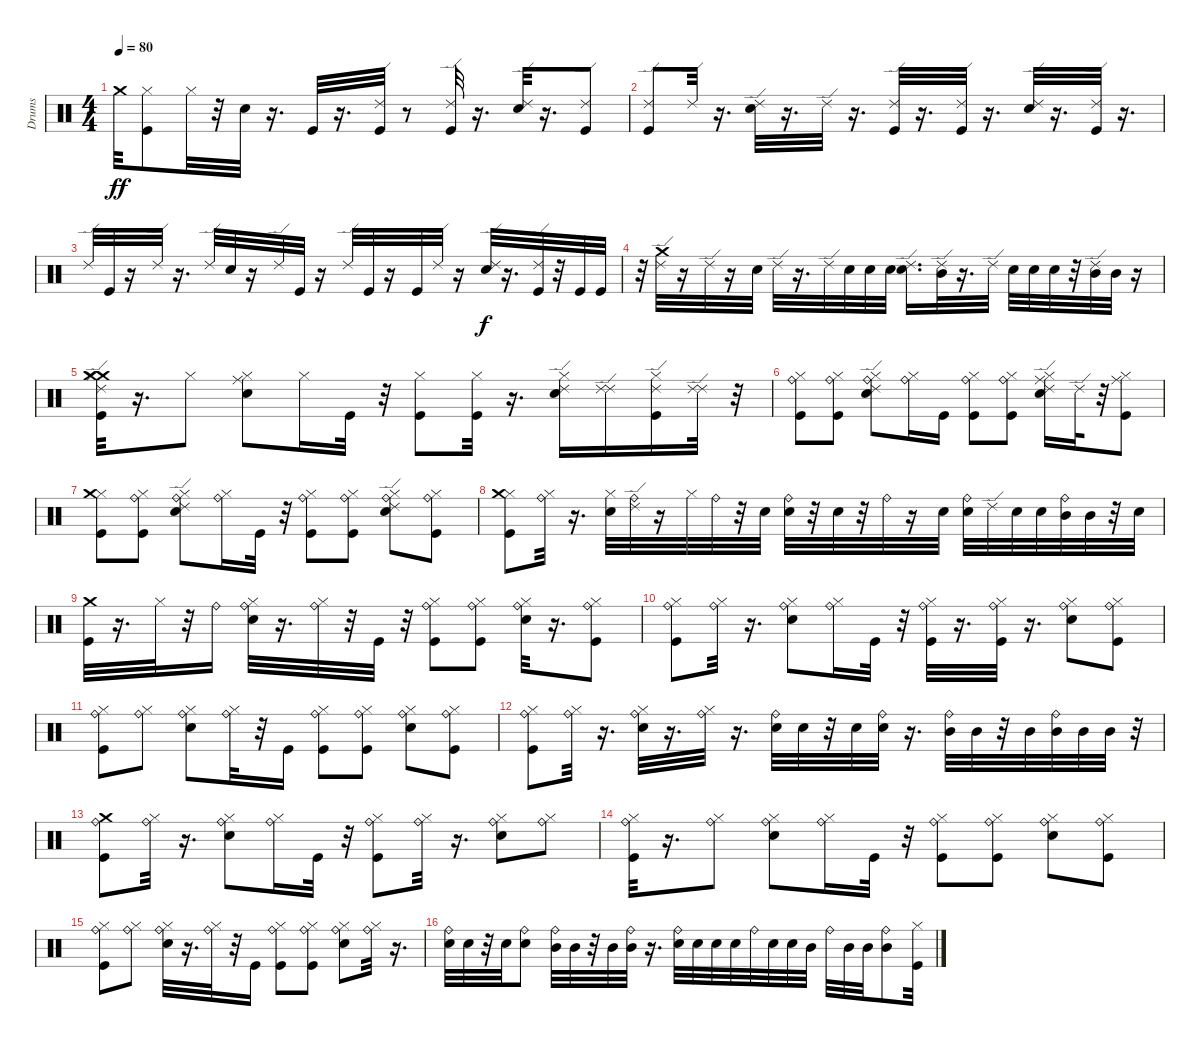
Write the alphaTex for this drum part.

\track ("Drums   " "Drums   ") {instrument percussion}
\staff {score}
\articulation defaults
\ts (4 4)
\tempo 80
\clef neutral
\ks c "Crash medium (hit)".32{dy ff}
("Kick (hit)" "Hi-Hat (closed)").8 "Hi-Hat (closed)".32 r.32 "Snare (hit) 2".32 r.16{d} "Kick (hit)".32 r.16{d} ("Ride (edge) 2" "Kick (hit)").32 r.8 ("Ride (edge) 2" "Kick (hit)").32 r.16{d} ("Snare (hit) 2" "Ride (edge) 2").32 r.16{d} ("Ride (edge) 2" "Kick (hit)").8 |
("Ride (edge) 2" "Kick (hit)").8 "Ride (edge) 2".32 r.16{d} ("Ride (edge) 2" "Snare (hit) 2").32 r.16{d} "Ride (edge) 2".32 r.16{d} ("Ride (edge) 2" "Kick (hit)").32 r.16{d} ("Kick (hit)" "Ride (edge) 2").32 r.16{d} ("Snare (hit) 2" "Ride (edge) 2").32 r.16{d} ("Kick (hit)" "Ride (edge) 2").32 r.16{d} |
"Ride (edge) 2".32 "Kick (hit)".32 r.16 "Ride (edge) 2".32 r.16{d} "Ride (edge) 2".32 "Snare (hit) 2".32 r.16 "Ride (edge) 2".32 "Kick (hit)".32 r.16 "Ride (edge) 2".32 "Kick (hit)".32 r.16 "Kick (hit)".32 "Ride (edge) 2".32 r.16 ("Snare (hit) 2" "Ride (edge) 2").32{dy f} r.16{d} ("Kick (hit)" "Ride (edge) 2").32 r.32 "Kick (hit)".32 "Kick (hit)".32 |
r.32 ("Ride (edge) 2" "Crash medium (hit)").32 r.16 "Ride (edge) 2".32 r.16 "Snare (hit) 2".32 "Ride (edge) 2".32 r.16{d} "Ride (edge) 2".32 "Snare (hit) 2".32 "Snare (hit) 2".32 "Snare (hit) 2".32 ("Snare (hit) 2" "Ride (edge) 2").16{d} ("Mid Tom (hit)" "Ride (edge) 2").32 r.16{d} "Ride (edge) 2".32 "Snare (hit) 2".32 "Snare (hit) 2".32 "Snare (hit) 2".32 r.32 ("Mid Tom (hit)" "Ride (edge) 2").32 "Mid Tom (hit)".32 r.16 |
("Ride (edge) 2" "Crash medium (hit)" "Kick (hit)" "Hi-Hat (closed)" "Crash medium (hit)").32 r.16{d} "Hi-Hat (closed)".8 ("Snare (hit) 2" "Hi-Hat (closed)" "Ride (middle)").8 "Hi-Hat (closed)".16 "Kick (hit)".32 r.32 ("Kick (hit)" "Hi-Hat (closed)").8 ("Kick (hit)" "Hi-Hat (closed)").32 r.16{d} ("Snare (hit) 2" "Hi-Hat (closed)" "Ride (edge) 2").16 ("Ride (edge) 2" "Ride (edge) 2").16 ("Kick (hit)" "Hi-Hat (closed)" "Ride (edge) 2").16 ("Ride (edge) 2" "Ride (edge) 2").32 r.32 |
("Kick (hit)" "Hi-Hat (closed)" "Ride (bell)").8 ("Kick (hit)" "Hi-Hat (closed)" "Ride (bell)").8 ("Snare (hit) 2" "Hi-Hat (closed)" "Ride (bell)" "Ride (edge) 2").8 ("Hi-Hat (closed)" "Ride (bell)").16 "Kick (hit)".16 ("Kick (hit)" "Hi-Hat (closed)" "Ride (bell)").8 ("Kick (hit)" "Hi-Hat (closed)" "Ride (bell)").8 ("Snare (hit) 2" "Hi-Hat (closed)" "Ride (middle)" "Ride (edge) 2").16 "Ride (edge) 2".32 r.32 ("Kick (hit)" "Hi-Hat (closed)" "Ride (middle)").8 |
("Kick (hit)" "Hi-Hat (closed)" "Crash medium (hit)").8 ("Kick (hit)" "Hi-Hat (closed)" "Ride (bell)").8 ("Snare (hit) 2" "Hi-Hat (closed)" "Ride (bell)" "Ride (edge) 2").8 ("Hi-Hat (closed)" "Ride (bell)").16 "Kick (hit)".32 r.32 ("Kick (hit)" "Hi-Hat (closed)" "Ride (bell)").8 ("Kick (hit)" "Hi-Hat (closed)" "Ride (bell)").8 ("Snare (hit) 2" "Hi-Hat (closed)" "Ride (bell)" "Ride (edge) 2").8 ("Kick (hit)" "Hi-Hat (closed)" "Ride (bell)").8 |
("Kick (hit)" "Hi-Hat (closed)" "Crash medium (hit)").8 ("Hi-Hat (closed)" "Ride (bell)").32 r.16{d} ("Hi-Hat (closed)" "Snare (hit) 2").32 ("Ride (bell)" "Ride (edge) 2").32 r.16 "Hi-Hat (closed)".32 "Ride (bell)".32 r.32 "Snare (hit) 2".32 ("Snare (hit) 2" "Ride (bell)").32 r.32 "Snare (hit) 2".32 r.32 "Ride (bell)".32 r.16 "Snare (hit) 2".32 ("Snare (hit) 2" "Ride (bell)").32 "Ride (edge) 2".32 "Snare (hit) 2".32 "Snare (hit) 2".32 ("Mid Tom (hit)" "Ride (bell)").32 "Mid Tom (hit)".32 r.32 "Snare (hit) 2".32 |
("Kick (hit)" "Crash medium (hit)").32 r.16{d} "Hi-Hat (closed)".32 r.32 "Ride (bell)".16 ("Snare (hit) 2" "Hi-Hat (closed)" "Ride (bell)").32 r.16{d} ("Hi-Hat (closed)" "Ride (bell)").32 r.32 "Kick (hit)".32 r.32 ("Kick (hit)" "Hi-Hat (closed)" "Ride (bell)").8 ("Kick (hit)" "Hi-Hat (closed)" "Ride (bell)").8 ("Snare (hit) 2" "Hi-Hat (closed)" "Ride (bell)").32 r.16{d} ("Kick (hit)" "Hi-Hat (closed)" "Ride (bell)").8 |
("Kick (hit)" "Hi-Hat (closed)" "Ride (bell)").8 ("Hi-Hat (closed)" "Ride (bell)").32 r.16{d} ("Snare (hit) 2" "Hi-Hat (closed)" "Ride (bell)").8 ("Hi-Hat (closed)" "Ride (bell)").16 "Kick (hit)".32 r.32 ("Kick (hit)" "Hi-Hat (closed)" "Ride (bell)").32 r.16{d} ("Kick (hit)" "Hi-Hat (closed)" "Ride (bell)").32 r.16{d} ("Snare (hit) 2" "Hi-Hat (closed)" "Ride (bell)").8 ("Kick (hit)" "Hi-Hat (closed)" "Ride (bell)").8 |
("Kick (hit)" "Hi-Hat (closed)" "Ride (bell)").8 ("Hi-Hat (closed)" "Ride (bell)").8 ("Snare (hit) 2" "Hi-Hat (closed)" "Ride (bell)").8 ("Hi-Hat (closed)" "Ride (bell)").32 r.32 "Kick (hit)".16 ("Kick (hit)" "Hi-Hat (closed)" "Ride (bell)").8 ("Kick (hit)" "Hi-Hat (closed)" "Ride (bell)").8 ("Snare (hit) 2" "Hi-Hat (closed)" "Ride (bell)").8 ("Kick (hit)" "Hi-Hat (closed)" "Ride (bell)").8 |
("Kick (hit)" "Hi-Hat (closed)" "Ride (bell)").8 ("Ride (bell)" "Hi-Hat (closed)").32 r.16{d} ("Ride (bell)" "Hi-Hat (closed)" "Snare (hit) 2").32 r.16{d} ("Ride (bell)" "Hi-Hat (closed)").32 r.16{d} ("Ride (bell)" "Snare (hit) 2").32 "Snare (hit) 2".32 r.32 "Snare (hit) 2".32 ("Snare (hit) 2" "Ride (bell)").32 r.16{d} ("Mid Tom (hit)" "Ride (bell)").32 "Mid Tom (hit)".32 r.32 "Mid Tom (hit)".32 ("Mid Tom (hit)" "Ride (bell)").32 "Mid Tom (hit)".32 "Mid Tom (hit)".32 r.32 |
("Kick (hit)" "Ride (bell)" "Crash medium (hit)").8 ("Hi-Hat (closed)" "Ride (bell)").32 r.16{d} ("Snare (hit) 2" "Hi-Hat (closed)" "Ride (bell)").8 ("Hi-Hat (closed)" "Ride (bell)").16 "Kick (hit)".32 r.32 ("Kick (hit)" "Hi-Hat (closed)" "Ride (bell)").8 ("Hi-Hat (closed)" "Ride (bell)").32 r.16{d} ("Snare (hit) 2" "Hi-Hat (closed)" "Ride (bell)").8 ("Hi-Hat (closed)" "Ride (bell)").8 |
("Kick (hit)" "Hi-Hat (closed)" "Ride (bell)").32 r.16{d} ("Hi-Hat (closed)" "Ride (bell)").8 ("Snare (hit) 2" "Hi-Hat (closed)" "Ride (bell)").8 ("Hi-Hat (closed)" "Ride (bell)").16 "Kick (hit)".32 r.32 ("Kick (hit)" "Hi-Hat (closed)" "Ride (bell)").8 ("Kick (hit)" "Hi-Hat (closed)" "Ride (bell)").8 ("Snare (hit) 2" "Hi-Hat (closed)" "Ride (bell)").8 ("Kick (hit)" "Hi-Hat (closed)" "Ride (bell)").8 |
("Kick (hit)" "Hi-Hat (closed)" "Ride (bell)").8 ("Hi-Hat (closed)" "Ride (bell)").8 ("Snare (hit) 2" "Hi-Hat (closed)" "Ride (bell)").32 r.16{d} ("Hi-Hat (closed)" "Ride (bell)").32 r.32 "Kick (hit)".16 ("Kick (hit)" "Hi-Hat (closed)" "Ride (bell)").8 ("Kick (hit)" "Hi-Hat (closed)" "Ride (bell)").8 ("Snare (hit) 2" "Hi-Hat (closed)" "Ride (bell)").8 ("Hi-Hat (closed)" "Ride (bell)").32 r.16{d} |
("Snare (hit) 2" "Ride (bell)").32 "Snare (hit) 2".32 r.32 "Snare (hit) 2".32 ("Snare (hit) 2" "Ride (bell)").8 ("Mid Tom (hit)" "Ride (bell)").32 "Mid Tom (hit)".32 r.32 "Mid Tom (hit)".32 ("Mid Tom (hit)" "Ride (bell)").32 r.16{d} ("Snare (hit) 2" "Ride (bell)").32 "Snare (hit) 2".32 "Snare (hit) 2".32 "Snare (hit) 2".32 "Ride (bell)".32 "Snare (hit) 2".32 "Snare (hit) 2".32 "Mid Tom (hit)".32 "Ride (bell)".32 "Mid Tom (hit)".32 "Mid Tom (hit)".32 ("Mid Tom (hit)" "Ride (bell)").8 ("Hi-Hat (closed)" "Kick (hit)").32
